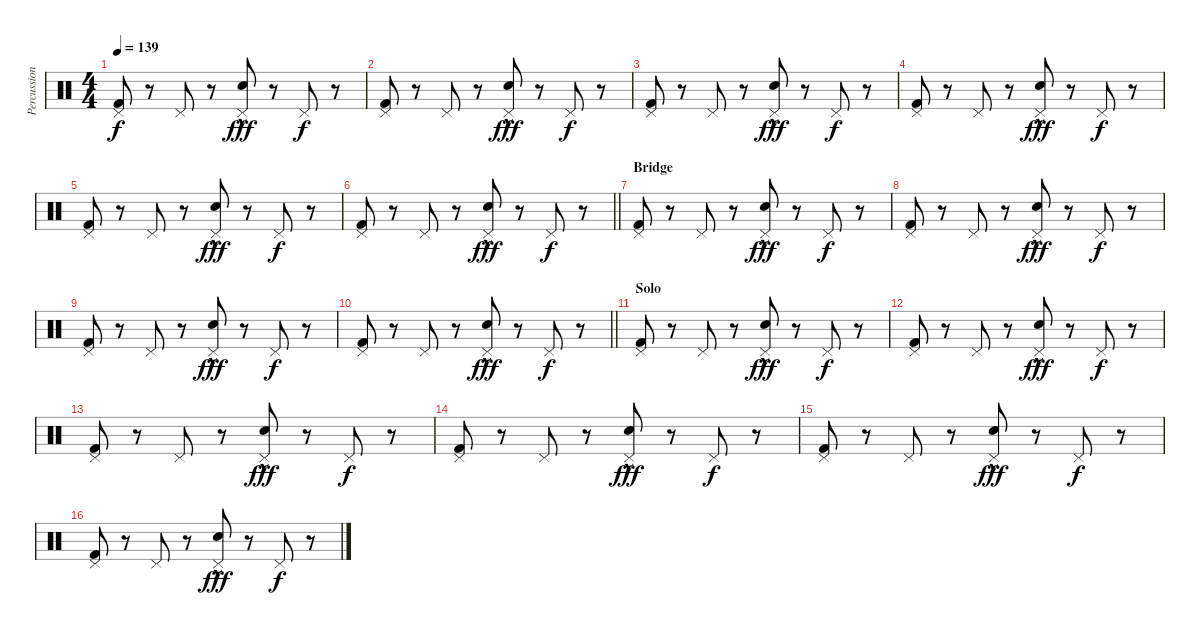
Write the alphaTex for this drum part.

\track ("Percussion" "Percussion") {instrument percussion}
\staff {score}
\articulation defaults
\ts (4 4)
\tempo 139
\clef neutral
\ks c
("Kick (hit) 2" "Pedal Hi-Hat (hit)").8{dy f} r.8 "Pedal Hi-Hat (hit)".8 r.8 ("Electric Snare (hit)"{hac} "Pedal Hi-Hat (hit)").8{dy fff} r.8 "Pedal Hi-Hat (hit)".8{dy f} r.8 |
("Kick (hit) 2" "Pedal Hi-Hat (hit)").8 r.8 "Pedal Hi-Hat (hit)".8 r.8 ("Electric Snare (hit)"{hac} "Pedal Hi-Hat (hit)").8{dy fff} r.8 "Pedal Hi-Hat (hit)".8{dy f} r.8 |
("Kick (hit) 2" "Pedal Hi-Hat (hit)").8 r.8 "Pedal Hi-Hat (hit)".8 r.8 ("Electric Snare (hit)"{hac} "Pedal Hi-Hat (hit)").8{dy fff} r.8 "Pedal Hi-Hat (hit)".8{dy f} r.8 |
("Kick (hit) 2" "Pedal Hi-Hat (hit)").8 r.8 "Pedal Hi-Hat (hit)".8 r.8 ("Electric Snare (hit)"{hac} "Pedal Hi-Hat (hit)").8{dy fff} r.8 "Pedal Hi-Hat (hit)".8{dy f} r.8 |
("Kick (hit) 2" "Pedal Hi-Hat (hit)").8 r.8 "Pedal Hi-Hat (hit)".8 r.8 ("Electric Snare (hit)"{hac} "Pedal Hi-Hat (hit)").8{dy fff} r.8 "Pedal Hi-Hat (hit)".8{dy f} r.8 |
\barLineRight lightlight
("Kick (hit) 2" "Pedal Hi-Hat (hit)").8 r.8 "Pedal Hi-Hat (hit)".8 r.8 ("Electric Snare (hit)"{hac} "Pedal Hi-Hat (hit)").8{dy fff} r.8 "Pedal Hi-Hat (hit)".8{dy f} r.8 |
\section ("" "Bridge")
("Kick (hit) 2" "Pedal Hi-Hat (hit)").8 r.8 "Pedal Hi-Hat (hit)".8 r.8 ("Electric Snare (hit)"{hac} "Pedal Hi-Hat (hit)").8{dy fff} r.8 "Pedal Hi-Hat (hit)".8{dy f} r.8 |
("Kick (hit) 2" "Pedal Hi-Hat (hit)").8 r.8 "Pedal Hi-Hat (hit)".8 r.8 ("Electric Snare (hit)"{hac} "Pedal Hi-Hat (hit)").8{dy fff} r.8 "Pedal Hi-Hat (hit)".8{dy f} r.8 |
("Kick (hit) 2" "Pedal Hi-Hat (hit)").8 r.8 "Pedal Hi-Hat (hit)".8 r.8 ("Electric Snare (hit)"{hac} "Pedal Hi-Hat (hit)").8{dy fff} r.8 "Pedal Hi-Hat (hit)".8{dy f} r.8 |
\barLineRight lightlight
("Kick (hit) 2" "Pedal Hi-Hat (hit)").8 r.8 "Pedal Hi-Hat (hit)".8 r.8 ("Electric Snare (hit)"{hac} "Pedal Hi-Hat (hit)").8{dy fff} r.8 "Pedal Hi-Hat (hit)".8{dy f} r.8 |
\section ("" "Solo")
("Kick (hit) 2" "Pedal Hi-Hat (hit)").8 r.8 "Pedal Hi-Hat (hit)".8 r.8 ("Electric Snare (hit)"{hac} "Pedal Hi-Hat (hit)").8{dy fff} r.8 "Pedal Hi-Hat (hit)".8{dy f} r.8 |
("Kick (hit) 2" "Pedal Hi-Hat (hit)").8 r.8 "Pedal Hi-Hat (hit)".8 r.8 ("Electric Snare (hit)"{hac} "Pedal Hi-Hat (hit)").8{dy fff} r.8 "Pedal Hi-Hat (hit)".8{dy f} r.8 |
("Kick (hit) 2" "Pedal Hi-Hat (hit)").8 r.8 "Pedal Hi-Hat (hit)".8 r.8 ("Electric Snare (hit)"{hac} "Pedal Hi-Hat (hit)").8{dy fff} r.8 "Pedal Hi-Hat (hit)".8{dy f} r.8 |
("Kick (hit) 2" "Pedal Hi-Hat (hit)").8 r.8 "Pedal Hi-Hat (hit)".8 r.8 ("Electric Snare (hit)"{hac} "Pedal Hi-Hat (hit)").8{dy fff} r.8 "Pedal Hi-Hat (hit)".8{dy f} r.8 |
("Kick (hit) 2" "Pedal Hi-Hat (hit)").8 r.8 "Pedal Hi-Hat (hit)".8 r.8 ("Electric Snare (hit)"{hac} "Pedal Hi-Hat (hit)").8{dy fff} r.8 "Pedal Hi-Hat (hit)".8{dy f} r.8 |
("Kick (hit) 2" "Pedal Hi-Hat (hit)").8 r.8 "Pedal Hi-Hat (hit)".8 r.8 ("Electric Snare (hit)"{hac} "Pedal Hi-Hat (hit)").8{dy fff} r.8 "Pedal Hi-Hat (hit)".8{dy f} r.8
